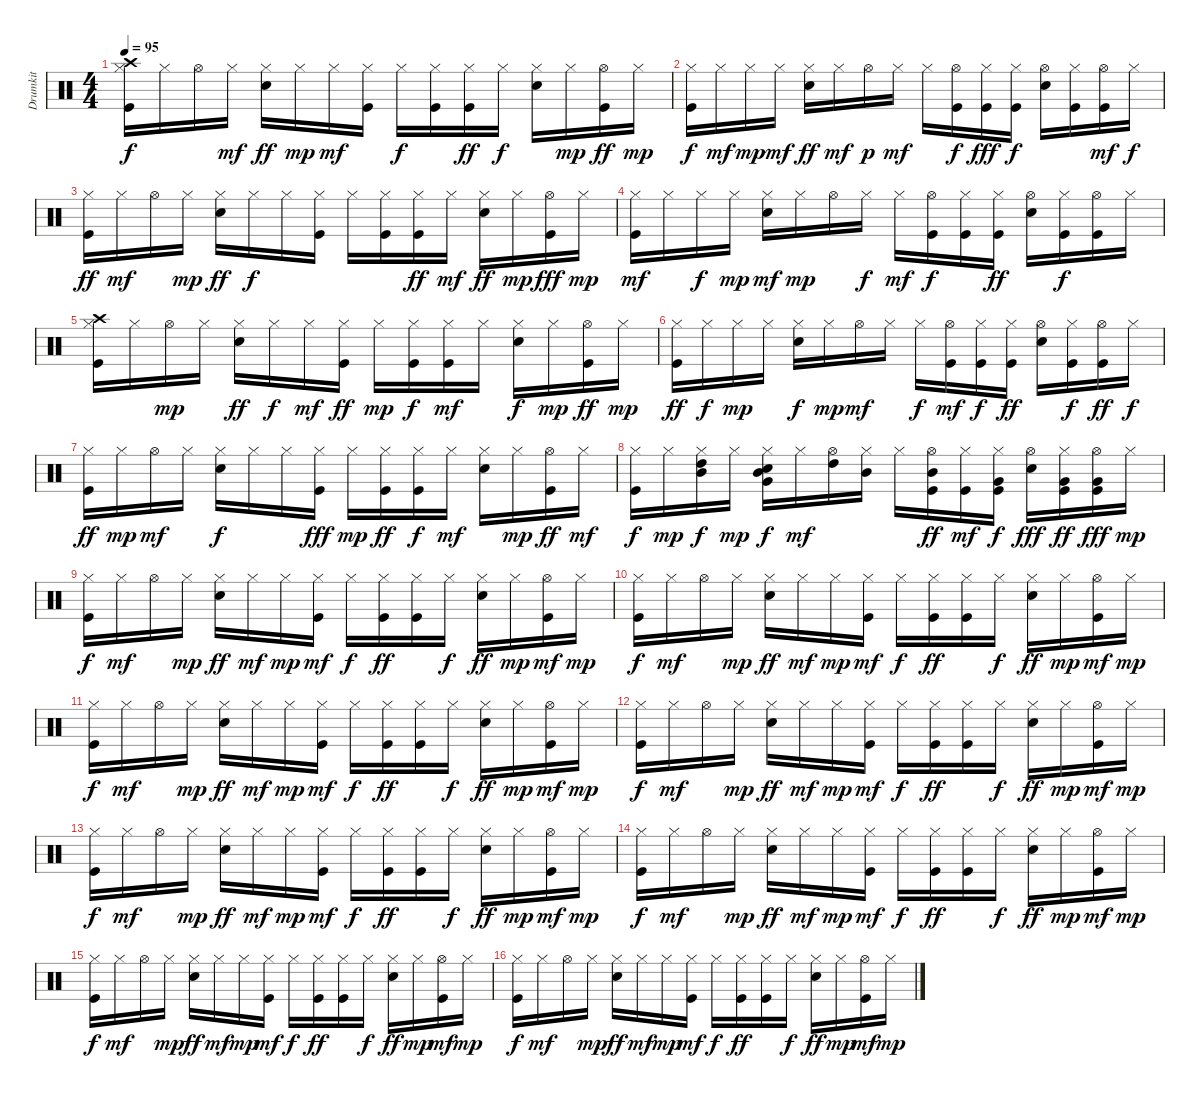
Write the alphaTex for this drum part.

\track ("Drumkit" "Drumkit") {instrument percussion}
\staff {score}
\articulation defaults
\ts (4 4)
\tempo 95
\clef neutral
\ks c
("Kick (hit)" "Hi-Hat (closed)" "Crash high (hit)").16{dy f} "Hi-Hat (closed)".16 "Hi-Hat (open)".16 "Hi-Hat (closed)".16{dy mf} ("Snare (hit) 2" "Hi-Hat (closed)").16{dy ff} "Hi-Hat (closed)".16{dy mp} "Hi-Hat (closed)".16{dy mf} ("Kick (hit)" "Hi-Hat (closed)").16 "Hi-Hat (closed)".16{dy f} ("Kick (hit)" "Hi-Hat (closed)").16 ("Kick (hit)" "Hi-Hat (closed)").16{dy ff} "Hi-Hat (closed)".16{dy f} ("Snare (hit) 2" "Hi-Hat (closed)").16 "Hi-Hat (closed)".16{dy mp} ("Kick (hit)" "Hi-Hat (open)").16{dy ff} "Hi-Hat (closed)".16{dy mp} |
("Kick (hit)" "Hi-Hat (closed)").16{dy f} "Hi-Hat (closed)".16{dy mf} "Hi-Hat (closed)".16{dy mp} "Hi-Hat (closed)".16{dy mf} ("Snare (hit) 2" "Hi-Hat (closed)").16{dy ff} "Hi-Hat (closed)".16{dy mf} "Hi-Hat (open)".16{dy p} "Hi-Hat (closed)".16{dy mf} "Hi-Hat (closed)".16 ("Kick (hit)" "Hi-Hat (open)").16{dy f} ("Kick (hit)" "Hi-Hat (closed)").16{dy fff} ("Kick (hit)" "Hi-Hat (closed)").16{dy f} ("Snare (hit) 2" "Hi-Hat (open)").16 ("Kick (hit)" "Hi-Hat (closed)").16 ("Kick (hit)" "Hi-Hat (open)").16{dy mf} "Hi-Hat (closed)".16{dy f} |
("Kick (hit)" "Hi-Hat (closed)").16{dy ff} "Hi-Hat (closed)".16{dy mf} "Hi-Hat (open)".16 "Hi-Hat (closed)".16{dy mp} ("Snare (hit) 2" "Hi-Hat (closed)").16{dy ff} "Hi-Hat (closed)".16{dy f} "Hi-Hat (closed)".16 ("Kick (hit)" "Hi-Hat (closed)").16 "Hi-Hat (closed)".16 ("Kick (hit)" "Hi-Hat (closed)").16 ("Kick (hit)" "Hi-Hat (closed)").16{dy ff} "Hi-Hat (closed)".16{dy mf} ("Snare (hit) 2" "Hi-Hat (closed)").16{dy ff} "Hi-Hat (closed)".16{dy mp} ("Kick (hit)" "Hi-Hat (open)").16{dy fff} "Hi-Hat (closed)".16{dy mp} |
("Kick (hit)" "Hi-Hat (closed)").16{dy mf} "Hi-Hat (closed)".16 "Hi-Hat (closed)".16{dy f} "Hi-Hat (closed)".16{dy mp} ("Snare (hit) 2" "Hi-Hat (closed)").16{dy mf} "Hi-Hat (closed)".16{dy mp} "Hi-Hat (open)".16 "Hi-Hat (closed)".16{dy f} "Hi-Hat (closed)".16{dy mf} ("Kick (hit)" "Hi-Hat (open)").16{dy f} ("Kick (hit)" "Hi-Hat (closed)").16 ("Kick (hit)" "Hi-Hat (closed)").16{dy ff} ("Snare (hit) 2" "Hi-Hat (open)").16 ("Kick (hit)" "Hi-Hat (closed)").16{dy f} ("Kick (hit)" "Hi-Hat (open)").16 "Hi-Hat (closed)".16 |
("Kick (hit)" "Hi-Hat (closed)" "Crash high (hit)").16 "Hi-Hat (closed)".16 "Hi-Hat (open)".16{dy mp} "Hi-Hat (closed)".16 ("Snare (hit) 2" "Hi-Hat (closed)").16{dy ff} "Hi-Hat (closed)".16{dy f} "Hi-Hat (closed)".16{dy mf} ("Kick (hit)" "Hi-Hat (closed)").16{dy ff} "Hi-Hat (closed)".16{dy mp} ("Kick (hit)" "Hi-Hat (closed)").16{dy f} ("Kick (hit)" "Hi-Hat (closed)").16{dy mf} "Hi-Hat (closed)".16 ("Snare (hit) 2" "Hi-Hat (closed)").16{dy f} "Hi-Hat (closed)".16{dy mp} ("Kick (hit)" "Hi-Hat (open)").16{dy ff} "Hi-Hat (closed)".16{dy mp} |
("Kick (hit)" "Hi-Hat (closed)").16{dy ff} "Hi-Hat (closed)".16{dy f} "Hi-Hat (closed)".16{dy mp} "Hi-Hat (closed)".16 ("Snare (hit) 2" "Hi-Hat (closed)").16{dy f} "Hi-Hat (closed)".16{dy mp} "Hi-Hat (open)".16{dy mf} "Hi-Hat (closed)".16 "Hi-Hat (closed)".16{dy f} ("Kick (hit)" "Hi-Hat (open)").16{dy mf} ("Kick (hit)" "Hi-Hat (closed)").16{dy f} ("Kick (hit)" "Hi-Hat (closed)").16{dy ff} ("Snare (hit) 2" "Hi-Hat (open)").16 ("Kick (hit)" "Hi-Hat (closed)").16{dy f} ("Kick (hit)" "Hi-Hat (open)").16{dy ff} "Hi-Hat (closed)".16{dy f} |
("Kick (hit)" "Hi-Hat (closed)").16{dy ff} "Hi-Hat (closed)".16{dy mp} "Hi-Hat (open)".16{dy mf} "Hi-Hat (closed)".16 ("Snare (hit) 2" "Hi-Hat (closed)").16{dy f} "Hi-Hat (closed)".16 "Hi-Hat (closed)".16 ("Kick (hit)" "Hi-Hat (closed)").16{dy fff} "Hi-Hat (closed)".16{dy mp} ("Kick (hit)" "Hi-Hat (closed)").16{dy ff} ("Kick (hit)" "Hi-Hat (closed)").16{dy f} "Hi-Hat (closed)".16{dy mf} ("Snare (hit) 2" "Hi-Hat (closed)").16 "Hi-Hat (closed)".16{dy mp} ("Kick (hit)" "Hi-Hat (open)").16{dy ff} "Hi-Hat (closed)".16{dy mf} |
("Kick (hit)" "Hi-Hat (closed)").16{dy f} "Hi-Hat (closed)".16{dy mp} ("Hi-Hat (closed)" "Mid Tom (hit)" "High Tom (hit)").16{dy f} "Hi-Hat (closed)".16{dy mp} ("Snare (hit) 2" "Hi-Hat (closed)" "Very Low Tom (hit)" "Mid Tom (hit)").16{dy f} "Hi-Hat (closed)".16{dy mf} ("Hi-Hat (open)" "High Tom (hit)").16 ("Hi-Hat (closed)" "Mid Tom (hit)").16 "Hi-Hat (closed)".16 ("Kick (hit)" "Hi-Hat (open)" "Mid Tom (hit)").16{dy ff} ("Kick (hit)" "Hi-Hat (closed)").16{dy mf} ("Kick (hit)" "Hi-Hat (closed)" "Very Low Tom (hit)").16{dy f} ("Snare (hit) 2" "Hi-Hat (open)").16{dy fff} ("Kick (hit)" "Hi-Hat (closed)" "Very Low Tom (hit)").16{dy ff} ("Kick (hit)" "Very Low Tom (hit)" "Hi-Hat (open)").16{dy fff} "Hi-Hat (closed)".16{dy mp} |
("Kick (hit)" "Hi-Hat (closed)").16{dy f} "Hi-Hat (closed)".16{dy mf} "Hi-Hat (open)".16 "Hi-Hat (closed)".16{dy mp} ("Snare (hit) 2" "Hi-Hat (closed)").16{dy ff} "Hi-Hat (closed)".16{dy mf} "Hi-Hat (closed)".16{dy mp} ("Kick (hit)" "Hi-Hat (closed)").16{dy mf} "Hi-Hat (closed)".16{dy f} ("Kick (hit)" "Hi-Hat (closed)").16{dy ff} ("Kick (hit)" "Hi-Hat (closed)").16 "Hi-Hat (closed)".16{dy f} ("Snare (hit) 2" "Hi-Hat (closed)").16{dy ff} "Hi-Hat (closed)".16{dy mp} ("Kick (hit)" "Hi-Hat (open)").16{dy mf} "Hi-Hat (closed)".16{dy mp} |
("Kick (hit)" "Hi-Hat (closed)").16{dy f} "Hi-Hat (closed)".16{dy mf} "Hi-Hat (open)".16 "Hi-Hat (closed)".16{dy mp} ("Snare (hit) 2" "Hi-Hat (closed)").16{dy ff} "Hi-Hat (closed)".16{dy mf} "Hi-Hat (closed)".16{dy mp} ("Kick (hit)" "Hi-Hat (closed)").16{dy mf} "Hi-Hat (closed)".16{dy f} ("Kick (hit)" "Hi-Hat (closed)").16{dy ff} ("Kick (hit)" "Hi-Hat (closed)").16 "Hi-Hat (closed)".16{dy f} ("Snare (hit) 2" "Hi-Hat (closed)").16{dy ff} "Hi-Hat (closed)".16{dy mp} ("Kick (hit)" "Hi-Hat (open)").16{dy mf} "Hi-Hat (closed)".16{dy mp} |
("Kick (hit)" "Hi-Hat (closed)").16{dy f} "Hi-Hat (closed)".16{dy mf} "Hi-Hat (open)".16 "Hi-Hat (closed)".16{dy mp} ("Snare (hit) 2" "Hi-Hat (closed)").16{dy ff} "Hi-Hat (closed)".16{dy mf} "Hi-Hat (closed)".16{dy mp} ("Kick (hit)" "Hi-Hat (closed)").16{dy mf} "Hi-Hat (closed)".16{dy f} ("Kick (hit)" "Hi-Hat (closed)").16{dy ff} ("Kick (hit)" "Hi-Hat (closed)").16 "Hi-Hat (closed)".16{dy f} ("Snare (hit) 2" "Hi-Hat (closed)").16{dy ff} "Hi-Hat (closed)".16{dy mp} ("Kick (hit)" "Hi-Hat (open)").16{dy mf} "Hi-Hat (closed)".16{dy mp} |
("Kick (hit)" "Hi-Hat (closed)").16{dy f} "Hi-Hat (closed)".16{dy mf} "Hi-Hat (open)".16 "Hi-Hat (closed)".16{dy mp} ("Snare (hit) 2" "Hi-Hat (closed)").16{dy ff} "Hi-Hat (closed)".16{dy mf} "Hi-Hat (closed)".16{dy mp} ("Kick (hit)" "Hi-Hat (closed)").16{dy mf} "Hi-Hat (closed)".16{dy f} ("Kick (hit)" "Hi-Hat (closed)").16{dy ff} ("Kick (hit)" "Hi-Hat (closed)").16 "Hi-Hat (closed)".16{dy f} ("Snare (hit) 2" "Hi-Hat (closed)").16{dy ff} "Hi-Hat (closed)".16{dy mp} ("Kick (hit)" "Hi-Hat (open)").16{dy mf} "Hi-Hat (closed)".16{dy mp} |
("Kick (hit)" "Hi-Hat (closed)").16{dy f} "Hi-Hat (closed)".16{dy mf} "Hi-Hat (open)".16 "Hi-Hat (closed)".16{dy mp} ("Snare (hit) 2" "Hi-Hat (closed)").16{dy ff} "Hi-Hat (closed)".16{dy mf} "Hi-Hat (closed)".16{dy mp} ("Kick (hit)" "Hi-Hat (closed)").16{dy mf} "Hi-Hat (closed)".16{dy f} ("Kick (hit)" "Hi-Hat (closed)").16{dy ff} ("Kick (hit)" "Hi-Hat (closed)").16 "Hi-Hat (closed)".16{dy f} ("Snare (hit) 2" "Hi-Hat (closed)").16{dy ff} "Hi-Hat (closed)".16{dy mp} ("Kick (hit)" "Hi-Hat (open)").16{dy mf} "Hi-Hat (closed)".16{dy mp} |
("Kick (hit)" "Hi-Hat (closed)").16{dy f} "Hi-Hat (closed)".16{dy mf} "Hi-Hat (open)".16 "Hi-Hat (closed)".16{dy mp} ("Snare (hit) 2" "Hi-Hat (closed)").16{dy ff} "Hi-Hat (closed)".16{dy mf} "Hi-Hat (closed)".16{dy mp} ("Kick (hit)" "Hi-Hat (closed)").16{dy mf} "Hi-Hat (closed)".16{dy f} ("Kick (hit)" "Hi-Hat (closed)").16{dy ff} ("Kick (hit)" "Hi-Hat (closed)").16 "Hi-Hat (closed)".16{dy f} ("Snare (hit) 2" "Hi-Hat (closed)").16{dy ff} "Hi-Hat (closed)".16{dy mp} ("Kick (hit)" "Hi-Hat (open)").16{dy mf} "Hi-Hat (closed)".16{dy mp} |
("Kick (hit)" "Hi-Hat (closed)").16{dy f} "Hi-Hat (closed)".16{dy mf} "Hi-Hat (open)".16 "Hi-Hat (closed)".16{dy mp} ("Snare (hit) 2" "Hi-Hat (closed)").16{dy ff} "Hi-Hat (closed)".16{dy mf} "Hi-Hat (closed)".16{dy mp} ("Kick (hit)" "Hi-Hat (closed)").16{dy mf} "Hi-Hat (closed)".16{dy f} ("Kick (hit)" "Hi-Hat (closed)").16{dy ff} ("Kick (hit)" "Hi-Hat (closed)").16 "Hi-Hat (closed)".16{dy f} ("Snare (hit) 2" "Hi-Hat (closed)").16{dy ff} "Hi-Hat (closed)".16{dy mp} ("Kick (hit)" "Hi-Hat (open)").16{dy mf} "Hi-Hat (closed)".16{dy mp} |
("Kick (hit)" "Hi-Hat (closed)").16{dy f} "Hi-Hat (closed)".16{dy mf} "Hi-Hat (open)".16 "Hi-Hat (closed)".16{dy mp} ("Snare (hit) 2" "Hi-Hat (closed)").16{dy ff} "Hi-Hat (closed)".16{dy mf} "Hi-Hat (closed)".16{dy mp} ("Kick (hit)" "Hi-Hat (closed)").16{dy mf} "Hi-Hat (closed)".16{dy f} ("Kick (hit)" "Hi-Hat (closed)").16{dy ff} ("Kick (hit)" "Hi-Hat (closed)").16 "Hi-Hat (closed)".16{dy f} ("Snare (hit) 2" "Hi-Hat (closed)").16{dy ff} "Hi-Hat (closed)".16{dy mp} ("Kick (hit)" "Hi-Hat (open)").16{dy mf} "Hi-Hat (closed)".16{dy mp}
